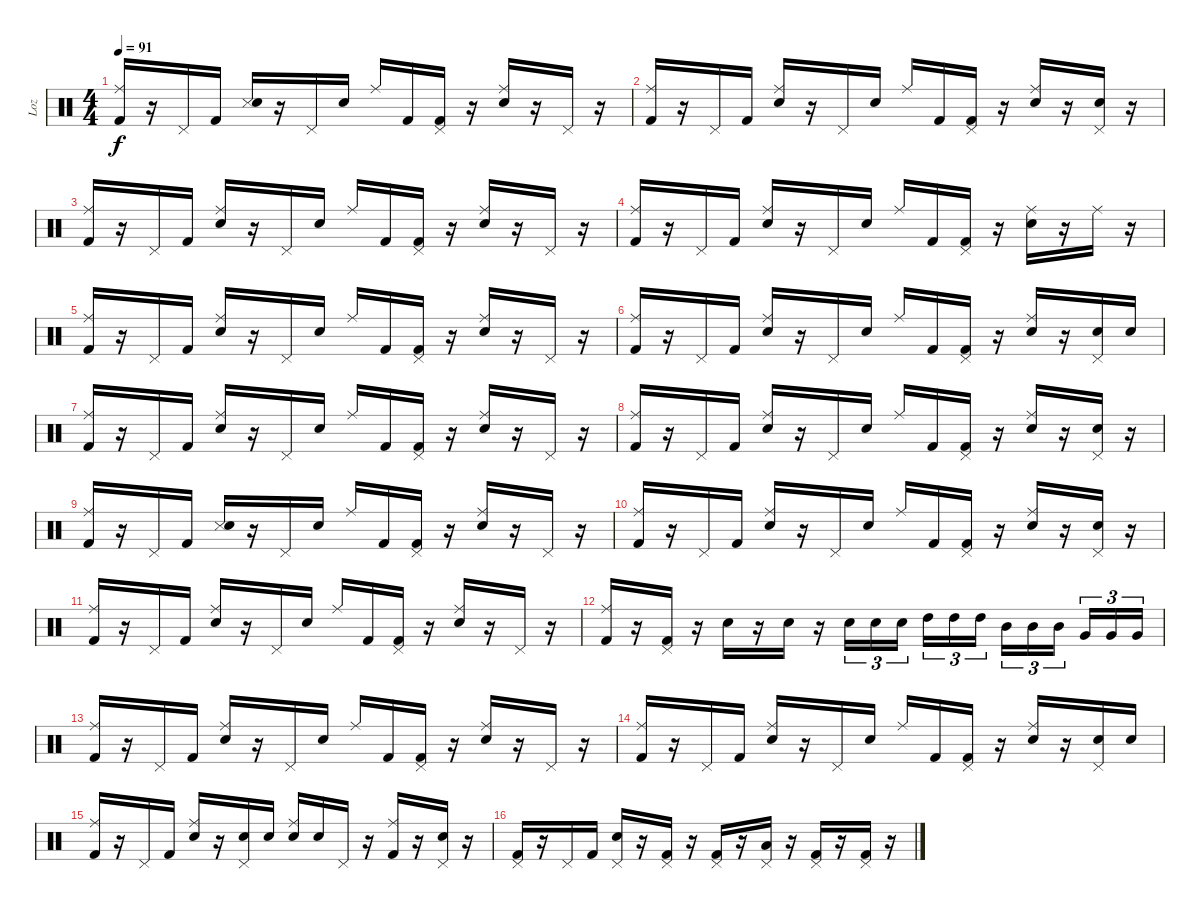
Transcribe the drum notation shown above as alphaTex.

\track ("Loz" "Loz") {instrument percussion}
\staff {score}
\articulation defaults
\ts (4 4)
\tempo 91
\clef neutral
\ks c
("Ride (middle)" "Kick (hit) 2").16{dy f} r.16 "Pedal Hi-Hat (hit)".16 "Kick (hit) 2".16 ("Snare (side stick) 3" "Electric Snare (hit)").16 r.16 "Pedal Hi-Hat (hit)".16 "Electric Snare (hit)".16 "Ride (middle)".16 "Kick (hit) 2".16 ("Pedal Hi-Hat (hit)" "Kick (hit) 2").16 r.16 ("Ride (middle)" "Electric Snare (hit)").16 r.16 "Pedal Hi-Hat (hit)".16 r.16 |
("Ride (middle)" "Kick (hit) 2").16 r.16 "Pedal Hi-Hat (hit)".16 "Kick (hit) 2".16 ("Ride (middle)" "Electric Snare (hit)").16 r.16 "Pedal Hi-Hat (hit)".16 "Electric Snare (hit)".16 "Ride (middle)".16 "Kick (hit) 2".16 ("Pedal Hi-Hat (hit)" "Kick (hit) 2").16 r.16 ("Ride (middle)" "Electric Snare (hit)").16 r.16 ("Pedal Hi-Hat (hit)" "Electric Snare (hit)").16 r.16 |
("Ride (middle)" "Kick (hit) 2").16 r.16 "Pedal Hi-Hat (hit)".16 "Kick (hit) 2".16 ("Ride (middle)" "Electric Snare (hit)").16 r.16 "Pedal Hi-Hat (hit)".16 "Electric Snare (hit)".16 "Ride (middle)".16 "Kick (hit) 2".16 ("Pedal Hi-Hat (hit)" "Kick (hit) 2").16 r.16 ("Ride (middle)" "Electric Snare (hit)").16 r.16 "Pedal Hi-Hat (hit)".16 r.16 |
("Ride (middle)" "Kick (hit) 2").16 r.16 "Pedal Hi-Hat (hit)".16 "Kick (hit) 2".16 ("Ride (middle)" "Electric Snare (hit)").16 r.16 "Pedal Hi-Hat (hit)".16 "Electric Snare (hit)".16 "Ride (middle)".16 "Kick (hit) 2".16 ("Pedal Hi-Hat (hit)" "Kick (hit) 2").16 r.16 ("Ride (middle)" "Electric Snare (hit)").16 r.16 "Ride (middle)".16 r.16 |
("Ride (middle)" "Kick (hit) 2").16 r.16 "Pedal Hi-Hat (hit)".16 "Kick (hit) 2".16 ("Ride (middle)" "Electric Snare (hit)").16 r.16 "Pedal Hi-Hat (hit)".16 "Electric Snare (hit)".16 "Ride (middle)".16 "Kick (hit) 2".16 ("Pedal Hi-Hat (hit)" "Kick (hit) 2").16 r.16 ("Ride (middle)" "Electric Snare (hit)").16 r.16 "Pedal Hi-Hat (hit)".16 r.16 |
("Ride (middle)" "Kick (hit) 2").16 r.16 "Pedal Hi-Hat (hit)".16 "Kick (hit) 2".16 ("Ride (middle)" "Electric Snare (hit)").16 r.16 "Pedal Hi-Hat (hit)".16 "Electric Snare (hit)".16 "Ride (middle)".16 "Kick (hit) 2".16 ("Pedal Hi-Hat (hit)" "Kick (hit) 2").16 r.16 ("Ride (middle)" "Electric Snare (hit)").16 r.16 ("Pedal Hi-Hat (hit)" "Electric Snare (hit)").16 "Electric Snare (hit)".16 |
("Ride (middle)" "Kick (hit) 2").16 r.16 "Pedal Hi-Hat (hit)".16 "Kick (hit) 2".16 ("Ride (middle)" "Electric Snare (hit)").16 r.16 "Pedal Hi-Hat (hit)".16 "Electric Snare (hit)".16 "Ride (middle)".16 "Kick (hit) 2".16 ("Pedal Hi-Hat (hit)" "Kick (hit) 2").16 r.16 ("Ride (middle)" "Electric Snare (hit)").16 r.16 "Pedal Hi-Hat (hit)".16 r.16 |
("Ride (middle)" "Kick (hit) 2").16 r.16 "Pedal Hi-Hat (hit)".16 "Kick (hit) 2".16 ("Ride (middle)" "Electric Snare (hit)").16 r.16 "Pedal Hi-Hat (hit)".16 "Electric Snare (hit)".16 "Ride (middle)".16 "Kick (hit) 2".16 ("Pedal Hi-Hat (hit)" "Kick (hit) 2").16 r.16 ("Ride (middle)" "Electric Snare (hit)").16 r.16 ("Pedal Hi-Hat (hit)" "Electric Snare (hit)").16 r.16 |
("Ride (middle)" "Kick (hit) 2").16 r.16 "Pedal Hi-Hat (hit)".16 "Kick (hit) 2".16 ("Snare (side stick) 3" "Electric Snare (hit)").16 r.16 "Pedal Hi-Hat (hit)".16 "Electric Snare (hit)".16 "Ride (middle)".16 "Kick (hit) 2".16 ("Pedal Hi-Hat (hit)" "Kick (hit) 2").16 r.16 ("Ride (middle)" "Electric Snare (hit)").16 r.16 "Pedal Hi-Hat (hit)".16 r.16 |
("Ride (middle)" "Kick (hit) 2").16 r.16 "Pedal Hi-Hat (hit)".16 "Kick (hit) 2".16 ("Ride (middle)" "Electric Snare (hit)").16 r.16 "Pedal Hi-Hat (hit)".16 "Electric Snare (hit)".16 "Ride (middle)".16 "Kick (hit) 2".16 ("Pedal Hi-Hat (hit)" "Kick (hit) 2").16 r.16 ("Ride (middle)" "Electric Snare (hit)").16 r.16 ("Pedal Hi-Hat (hit)" "Electric Snare (hit)").16 r.16 |
("Ride (middle)" "Kick (hit) 2").16 r.16 "Pedal Hi-Hat (hit)".16 "Kick (hit) 2".16 ("Ride (middle)" "Electric Snare (hit)").16 r.16 "Pedal Hi-Hat (hit)".16 "Electric Snare (hit)".16 "Ride (middle)".16 "Kick (hit) 2".16 ("Pedal Hi-Hat (hit)" "Kick (hit) 2").16 r.16 ("Ride (middle)" "Electric Snare (hit)").16 r.16 "Pedal Hi-Hat (hit)".16 r.16 |
("Ride (middle)" "Kick (hit) 2").16 r.16 ("Pedal Hi-Hat (hit)" "Kick (hit) 2").16 r.16 "Electric Snare (hit)".16 r.16 "Electric Snare (hit)".16 r.16 "Electric Snare (hit)".16{tu (3 2)} "Electric Snare (hit)".16{tu (3 2)} "Electric Snare (hit)".16{tu (3 2)} "High Tom (hit)".16{tu (3 2)} "High Tom (hit)".16{tu (3 2)} "High Tom (hit)".16{tu (3 2)} "Mid Tom (hit)".16{tu (3 2)} "Mid Tom (hit)".16{tu (3 2)} "Mid Tom (hit)".16{tu (3 2)} "Very Low Tom (hit)".16{tu (3 2)} "Very Low Tom (hit)".16{tu (3 2)} "Very Low Tom (hit)".16{tu (3 2)} |
("Ride (middle)" "Kick (hit) 2").16 r.16 "Pedal Hi-Hat (hit)".16 "Kick (hit) 2".16 ("Ride (middle)" "Electric Snare (hit)").16 r.16 "Pedal Hi-Hat (hit)".16 "Electric Snare (hit)".16 "Ride (middle)".16 "Kick (hit) 2".16 ("Pedal Hi-Hat (hit)" "Kick (hit) 2").16 r.16 ("Ride (middle)" "Electric Snare (hit)").16 r.16 "Pedal Hi-Hat (hit)".16 r.16 |
("Ride (middle)" "Kick (hit) 2").16 r.16 "Pedal Hi-Hat (hit)".16 "Kick (hit) 2".16 ("Ride (middle)" "Electric Snare (hit)").16 r.16 "Pedal Hi-Hat (hit)".16 "Electric Snare (hit)".16 "Ride (middle)".16 "Kick (hit) 2".16 ("Pedal Hi-Hat (hit)" "Kick (hit) 2").16 r.16 ("Ride (middle)" "Electric Snare (hit)").16 r.16 ("Pedal Hi-Hat (hit)" "Electric Snare (hit)").16 "Electric Snare (hit)".16 |
("Ride (middle)" "Kick (hit) 2").16 r.16 "Pedal Hi-Hat (hit)".16 "Kick (hit) 2".16 ("Ride (middle)" "Electric Snare (hit)").16 r.16 ("Pedal Hi-Hat (hit)" "Electric Snare (hit)").16 "Electric Snare (hit)".16 ("Ride (middle)" "Electric Snare (hit)").16 "Electric Snare (hit)".16 "Pedal Hi-Hat (hit)".16 r.16 ("Ride (middle)" "Kick (hit) 2").16 r.16 ("Pedal Hi-Hat (hit)" "Electric Snare (hit)").16 r.16 |
("Pedal Hi-Hat (hit)" "Kick (hit) 2").16 r.16 "Pedal Hi-Hat (hit)".16 "Kick (hit) 2".16 ("Pedal Hi-Hat (hit)" "Electric Snare (hit)").16 r.16 ("Pedal Hi-Hat (hit)" "Kick (hit) 2").16 r.16 ("Pedal Hi-Hat (hit)" "Kick (hit) 2").16 r.16 ("Pedal Hi-Hat (hit)" "Low Tom (hit)").16 r.16 ("Pedal Hi-Hat (hit)" "Kick (hit) 2").16 r.16 ("Pedal Hi-Hat (hit)" "Kick (hit) 2").16 r.16
